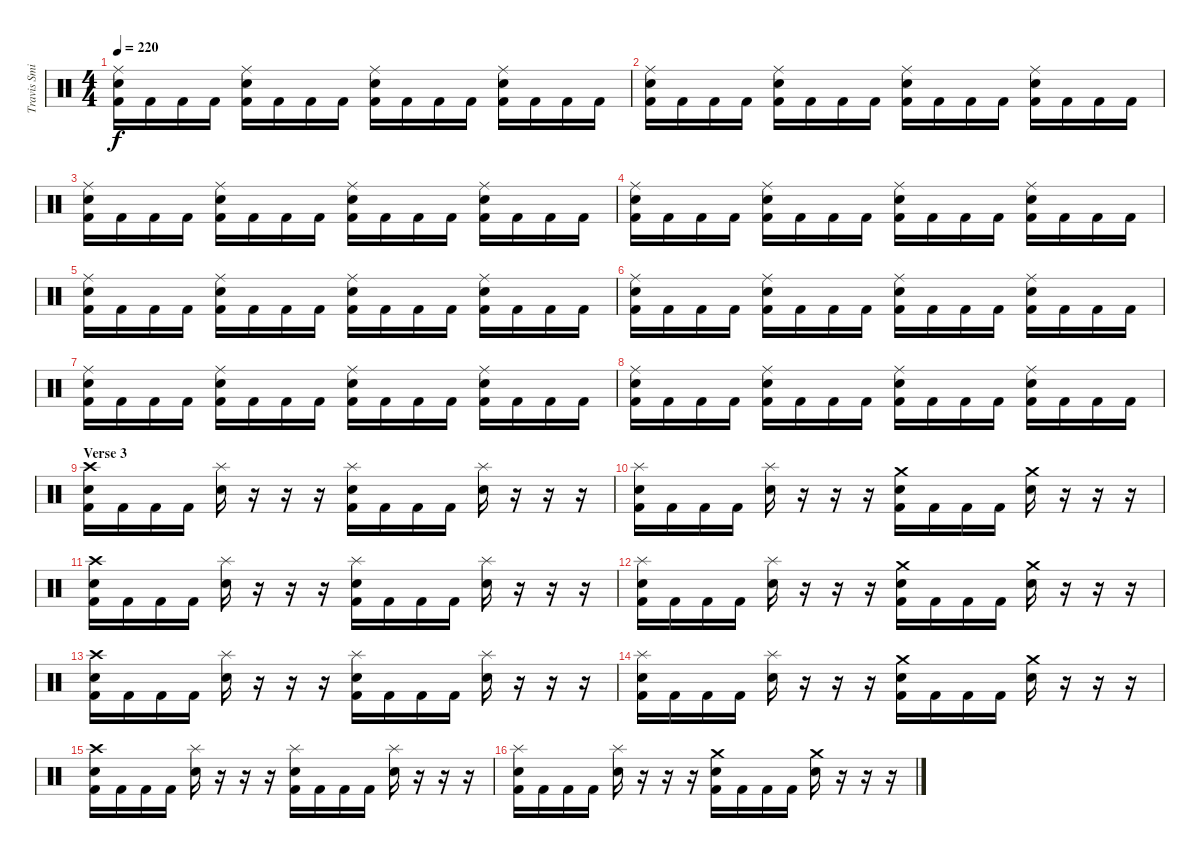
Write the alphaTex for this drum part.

\track ("Travis Smith" "Travis Smi") {instrument percussion}
\staff {score}
\articulation defaults
\ts (4 4)
\tempo 220
\clef neutral
\ks c
("Ride (middle)" "Electric Snare (hit)" "Kick (hit) 2").16{dy f} "Kick (hit) 2".16 "Kick (hit) 2".16 "Kick (hit) 2".16 ("Ride (middle)" "Electric Snare (hit)" "Kick (hit) 2").16 "Kick (hit) 2".16 "Kick (hit) 2".16 "Kick (hit) 2".16 ("Ride (middle)" "Electric Snare (hit)" "Kick (hit) 2").16 "Kick (hit) 2".16 "Kick (hit) 2".16 "Kick (hit) 2".16 ("Ride (middle)" "Electric Snare (hit)" "Kick (hit) 2").16 "Kick (hit) 2".16 "Kick (hit) 2".16 "Kick (hit) 2".16 |
("Ride (middle)" "Electric Snare (hit)" "Kick (hit) 2").16 "Kick (hit) 2".16 "Kick (hit) 2".16 "Kick (hit) 2".16 ("Ride (middle)" "Electric Snare (hit)" "Kick (hit) 2").16 "Kick (hit) 2".16 "Kick (hit) 2".16 "Kick (hit) 2".16 ("Ride (middle)" "Electric Snare (hit)" "Kick (hit) 2").16 "Kick (hit) 2".16 "Kick (hit) 2".16 "Kick (hit) 2".16 ("Ride (middle)" "Electric Snare (hit)" "Kick (hit) 2").16 "Kick (hit) 2".16 "Kick (hit) 2".16 "Kick (hit) 2".16 |
("Ride (middle)" "Electric Snare (hit)" "Kick (hit) 2").16 "Kick (hit) 2".16 "Kick (hit) 2".16 "Kick (hit) 2".16 ("Ride (middle)" "Electric Snare (hit)" "Kick (hit) 2").16 "Kick (hit) 2".16 "Kick (hit) 2".16 "Kick (hit) 2".16 ("Ride (middle)" "Electric Snare (hit)" "Kick (hit) 2").16 "Kick (hit) 2".16 "Kick (hit) 2".16 "Kick (hit) 2".16 ("Ride (middle)" "Electric Snare (hit)" "Kick (hit) 2").16 "Kick (hit) 2".16 "Kick (hit) 2".16 "Kick (hit) 2".16 |
("Ride (middle)" "Electric Snare (hit)" "Kick (hit) 2").16 "Kick (hit) 2".16 "Kick (hit) 2".16 "Kick (hit) 2".16 ("Ride (middle)" "Electric Snare (hit)" "Kick (hit) 2").16 "Kick (hit) 2".16 "Kick (hit) 2".16 "Kick (hit) 2".16 ("Ride (middle)" "Electric Snare (hit)" "Kick (hit) 2").16 "Kick (hit) 2".16 "Kick (hit) 2".16 "Kick (hit) 2".16 ("Ride (middle)" "Electric Snare (hit)" "Kick (hit) 2").16 "Kick (hit) 2".16 "Kick (hit) 2".16 "Kick (hit) 2".16 |
("Ride (middle)" "Electric Snare (hit)" "Kick (hit) 2").16 "Kick (hit) 2".16 "Kick (hit) 2".16 "Kick (hit) 2".16 ("Ride (middle)" "Electric Snare (hit)" "Kick (hit) 2").16 "Kick (hit) 2".16 "Kick (hit) 2".16 "Kick (hit) 2".16 ("Ride (middle)" "Electric Snare (hit)" "Kick (hit) 2").16 "Kick (hit) 2".16 "Kick (hit) 2".16 "Kick (hit) 2".16 ("Ride (middle)" "Electric Snare (hit)" "Kick (hit) 2").16 "Kick (hit) 2".16 "Kick (hit) 2".16 "Kick (hit) 2".16 |
("Ride (middle)" "Electric Snare (hit)" "Kick (hit) 2").16 "Kick (hit) 2".16 "Kick (hit) 2".16 "Kick (hit) 2".16 ("Ride (middle)" "Electric Snare (hit)" "Kick (hit) 2").16 "Kick (hit) 2".16 "Kick (hit) 2".16 "Kick (hit) 2".16 ("Ride (middle)" "Electric Snare (hit)" "Kick (hit) 2").16 "Kick (hit) 2".16 "Kick (hit) 2".16 "Kick (hit) 2".16 ("Ride (middle)" "Electric Snare (hit)" "Kick (hit) 2").16 "Kick (hit) 2".16 "Kick (hit) 2".16 "Kick (hit) 2".16 |
("Ride (middle)" "Electric Snare (hit)" "Kick (hit) 2").16 "Kick (hit) 2".16 "Kick (hit) 2".16 "Kick (hit) 2".16 ("Ride (middle)" "Electric Snare (hit)" "Kick (hit) 2").16 "Kick (hit) 2".16 "Kick (hit) 2".16 "Kick (hit) 2".16 ("Ride (middle)" "Electric Snare (hit)" "Kick (hit) 2").16 "Kick (hit) 2".16 "Kick (hit) 2".16 "Kick (hit) 2".16 ("Ride (middle)" "Electric Snare (hit)" "Kick (hit) 2").16 "Kick (hit) 2".16 "Kick (hit) 2".16 "Kick (hit) 2".16 |
("Ride (middle)" "Electric Snare (hit)" "Kick (hit) 2").16 "Kick (hit) 2".16 "Kick (hit) 2".16 "Kick (hit) 2".16 ("Ride (middle)" "Electric Snare (hit)" "Kick (hit) 2").16 "Kick (hit) 2".16 "Kick (hit) 2".16 "Kick (hit) 2".16 ("Ride (middle)" "Electric Snare (hit)" "Kick (hit) 2").16 "Kick (hit) 2".16 "Kick (hit) 2".16 "Kick (hit) 2".16 ("Ride (middle)" "Electric Snare (hit)" "Kick (hit) 2").16 "Kick (hit) 2".16 "Kick (hit) 2".16 "Kick (hit) 2".16 |
\section ("" "Verse 3")
("Crash high (hit)" "Electric Snare (hit)" "Kick (hit) 2").16 "Kick (hit) 2".16 "Kick (hit) 2".16 "Kick (hit) 2".16 ("Splash (hit)" "Electric Snare (hit)").16 r.16 r.16 r.16 ("Splash (hit)" "Electric Snare (hit)" "Kick (hit) 2").16 "Kick (hit) 2".16 "Kick (hit) 2".16 "Kick (hit) 2".16 ("Splash (hit)" "Electric Snare (hit)").16 r.16 r.16 r.16 |
("Splash (hit)" "Electric Snare (hit)" "Kick (hit) 2").16 "Kick (hit) 2".16 "Kick (hit) 2".16 "Kick (hit) 2".16 ("Splash (hit)" "Electric Snare (hit)").16 r.16 r.16 r.16 ("Crash medium (hit)" "Electric Snare (hit)" "Kick (hit) 2").16 "Kick (hit) 2".16 "Kick (hit) 2".16 "Kick (hit) 2".16 ("Crash medium (hit)" "Electric Snare (hit)").16 r.16 r.16 r.16 |
("Crash high (hit)" "Electric Snare (hit)" "Kick (hit) 2").16 "Kick (hit) 2".16 "Kick (hit) 2".16 "Kick (hit) 2".16 ("Splash (hit)" "Electric Snare (hit)").16 r.16 r.16 r.16 ("Splash (hit)" "Electric Snare (hit)" "Kick (hit) 2").16 "Kick (hit) 2".16 "Kick (hit) 2".16 "Kick (hit) 2".16 ("Splash (hit)" "Electric Snare (hit)").16 r.16 r.16 r.16 |
("Splash (hit)" "Electric Snare (hit)" "Kick (hit) 2").16 "Kick (hit) 2".16 "Kick (hit) 2".16 "Kick (hit) 2".16 ("Splash (hit)" "Electric Snare (hit)").16 r.16 r.16 r.16 ("Crash medium (hit)" "Electric Snare (hit)" "Kick (hit) 2").16 "Kick (hit) 2".16 "Kick (hit) 2".16 "Kick (hit) 2".16 ("Crash medium (hit)" "Electric Snare (hit)").16 r.16 r.16 r.16 |
("Crash high (hit)" "Electric Snare (hit)" "Kick (hit) 2").16 "Kick (hit) 2".16 "Kick (hit) 2".16 "Kick (hit) 2".16 ("Splash (hit)" "Electric Snare (hit)").16 r.16 r.16 r.16 ("Splash (hit)" "Electric Snare (hit)" "Kick (hit) 2").16 "Kick (hit) 2".16 "Kick (hit) 2".16 "Kick (hit) 2".16 ("Splash (hit)" "Electric Snare (hit)").16 r.16 r.16 r.16 |
("Splash (hit)" "Electric Snare (hit)" "Kick (hit) 2").16 "Kick (hit) 2".16 "Kick (hit) 2".16 "Kick (hit) 2".16 ("Splash (hit)" "Electric Snare (hit)").16 r.16 r.16 r.16 ("Crash medium (hit)" "Electric Snare (hit)" "Kick (hit) 2").16 "Kick (hit) 2".16 "Kick (hit) 2".16 "Kick (hit) 2".16 ("Crash medium (hit)" "Electric Snare (hit)").16 r.16 r.16 r.16 |
("Crash high (hit)" "Electric Snare (hit)" "Kick (hit) 2").16 "Kick (hit) 2".16 "Kick (hit) 2".16 "Kick (hit) 2".16 ("Splash (hit)" "Electric Snare (hit)").16 r.16 r.16 r.16 ("Splash (hit)" "Electric Snare (hit)" "Kick (hit) 2").16 "Kick (hit) 2".16 "Kick (hit) 2".16 "Kick (hit) 2".16 ("Splash (hit)" "Electric Snare (hit)").16 r.16 r.16 r.16 |
("Splash (hit)" "Electric Snare (hit)" "Kick (hit) 2").16 "Kick (hit) 2".16 "Kick (hit) 2".16 "Kick (hit) 2".16 ("Splash (hit)" "Electric Snare (hit)").16 r.16 r.16 r.16 ("Crash medium (hit)" "Electric Snare (hit)" "Kick (hit) 2").16 "Kick (hit) 2".16 "Kick (hit) 2".16 "Kick (hit) 2".16 ("Crash medium (hit)" "Electric Snare (hit)").16 r.16 r.16 r.16
